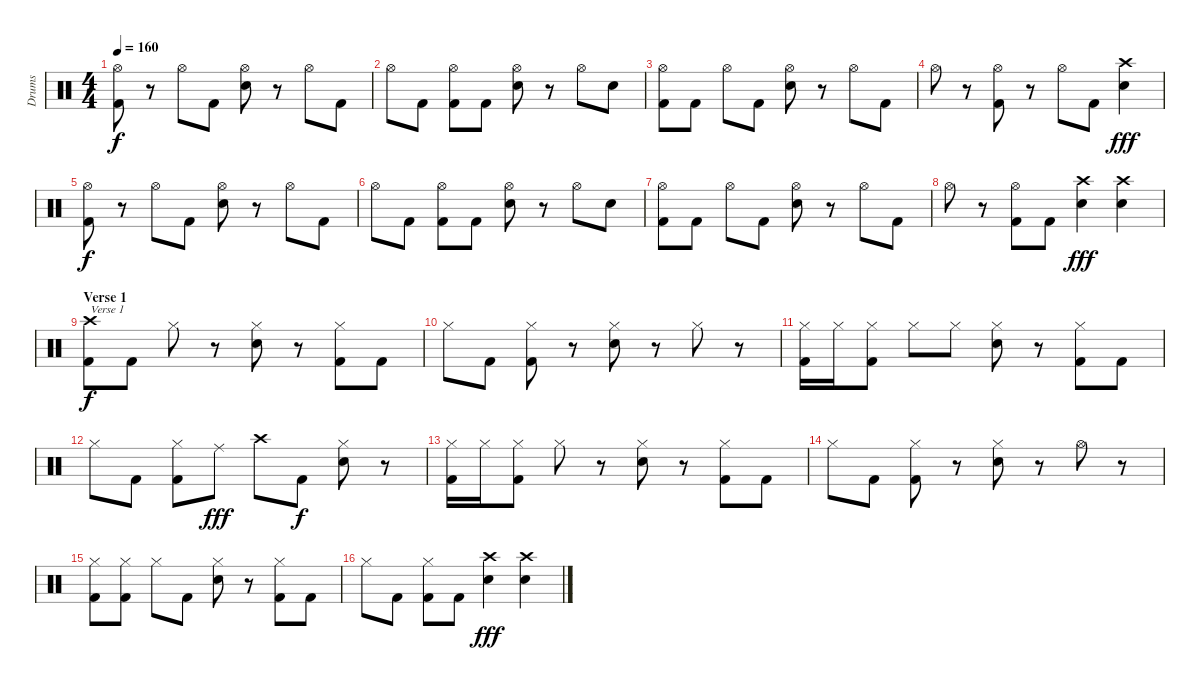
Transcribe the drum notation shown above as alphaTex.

\track ("Drums" "Drums") {instrument percussion}
\staff {score}
\articulation defaults
\ts (4 4)
\tempo 160
\clef neutral
\ks c
("Hi-Hat (open)" "Kick (hit) 2").8{dy f} r.8 "Hi-Hat (open)".8 "Kick (hit) 2".8 ("Hi-Hat (open)" "Electric Snare (hit)").8 r.8 "Hi-Hat (open)".8 "Kick (hit) 2".8 |
"Hi-Hat (open)".8 "Kick (hit) 2".8 ("Hi-Hat (open)" "Kick (hit) 2").8 "Kick (hit) 2".8 ("Hi-Hat (open)" "Electric Snare (hit)").8 r.8 "Hi-Hat (open)".8 "Electric Snare (hit)".8 |
("Hi-Hat (open)" "Kick (hit) 2").8 "Kick (hit) 2".8 "Hi-Hat (open)".8 "Kick (hit) 2".8 ("Hi-Hat (open)" "Electric Snare (hit)").8 r.8 "Hi-Hat (open)".8 "Kick (hit) 2".8 |
"Hi-Hat (open)".8 r.8 ("Hi-Hat (open)" "Kick (hit) 2").8 r.8 "Hi-Hat (open)".8 "Kick (hit) 2".8 ("Crash high (hit)" "Electric Snare (hit)").4{dy fff} |
("Hi-Hat (open)" "Kick (hit) 2").8{dy f} r.8 "Hi-Hat (open)".8 "Kick (hit) 2".8 ("Hi-Hat (open)" "Electric Snare (hit)").8 r.8 "Hi-Hat (open)".8 "Kick (hit) 2".8 |
"Hi-Hat (open)".8 "Kick (hit) 2".8 ("Hi-Hat (open)" "Kick (hit) 2").8 "Kick (hit) 2".8 ("Hi-Hat (open)" "Electric Snare (hit)").8 r.8 "Hi-Hat (open)".8 "Electric Snare (hit)".8 |
("Hi-Hat (open)" "Kick (hit) 2").8 "Kick (hit) 2".8 "Hi-Hat (open)".8 "Kick (hit) 2".8 ("Hi-Hat (open)" "Electric Snare (hit)").8 r.8 "Hi-Hat (open)".8 "Kick (hit) 2".8 |
"Hi-Hat (open)".8 r.8 ("Hi-Hat (open)" "Kick (hit) 2").8 "Kick (hit) 2".8 ("Crash high (hit)" "Electric Snare (hit)").4{dy fff} ("Crash high (hit)" "Electric Snare (hit)").4 |
\section ("" "Verse 1")
("Crash high (hit)" "Kick (hit) 2").8{txt "Verse 1" dy f} "Kick (hit) 2".8 "Hi-Hat (closed)".8 r.8 ("Hi-Hat (closed)" "Electric Snare (hit)").8 r.8 ("Hi-Hat (closed)" "Kick (hit) 2").8 "Kick (hit) 2".8 |
"Hi-Hat (closed)".8 "Kick (hit) 2".8 ("Hi-Hat (closed)" "Kick (hit) 2").8 r.8 ("Hi-Hat (closed)" "Electric Snare (hit)").8 r.8 "Hi-Hat (closed)".8 r.8 |
("Hi-Hat (closed)" "Kick (hit) 2").16 "Hi-Hat (closed)".16 ("Hi-Hat (closed)" "Kick (hit) 2").8 "Hi-Hat (closed)".8 "Hi-Hat (closed)".8 ("Hi-Hat (closed)" "Electric Snare (hit)").8 r.8 ("Hi-Hat (closed)" "Kick (hit) 2").8 "Kick (hit) 2".8 |
"Hi-Hat (closed)".8 "Kick (hit) 2".8 ("Hi-Hat (closed)" "Kick (hit) 2").8 "Ride (middle)".8{dy fff} "Crash high (hit)".8 "Kick (hit) 2".8{dy f} ("Hi-Hat (closed)" "Electric Snare (hit)").8 r.8 |
("Hi-Hat (closed)" "Kick (hit) 2").16 "Hi-Hat (closed)".16 ("Hi-Hat (closed)" "Kick (hit) 2").8 "Hi-Hat (closed)".8 r.8 ("Hi-Hat (closed)" "Electric Snare (hit)").8 r.8 ("Hi-Hat (closed)" "Kick (hit) 2").8 "Kick (hit) 2".8 |
"Hi-Hat (closed)".8 "Kick (hit) 2".8 ("Hi-Hat (closed)" "Kick (hit) 2").8 r.8 ("Hi-Hat (closed)" "Electric Snare (hit)").8 r.8 "Hi-Hat (open)".8 r.8 |
("Hi-Hat (closed)" "Kick (hit) 2").8 ("Hi-Hat (closed)" "Kick (hit) 2").8 "Hi-Hat (closed)".8 "Kick (hit) 2".8 ("Hi-Hat (closed)" "Electric Snare (hit)").8 r.8 ("Hi-Hat (closed)" "Kick (hit) 2").8 "Kick (hit) 2".8 |
"Hi-Hat (closed)".8 "Kick (hit) 2".8 ("Hi-Hat (closed)" "Kick (hit) 2").8 "Kick (hit) 2".8 ("Crash high (hit)" "Electric Snare (hit)").4{dy fff} ("Crash high (hit)" "Electric Snare (hit)").4
